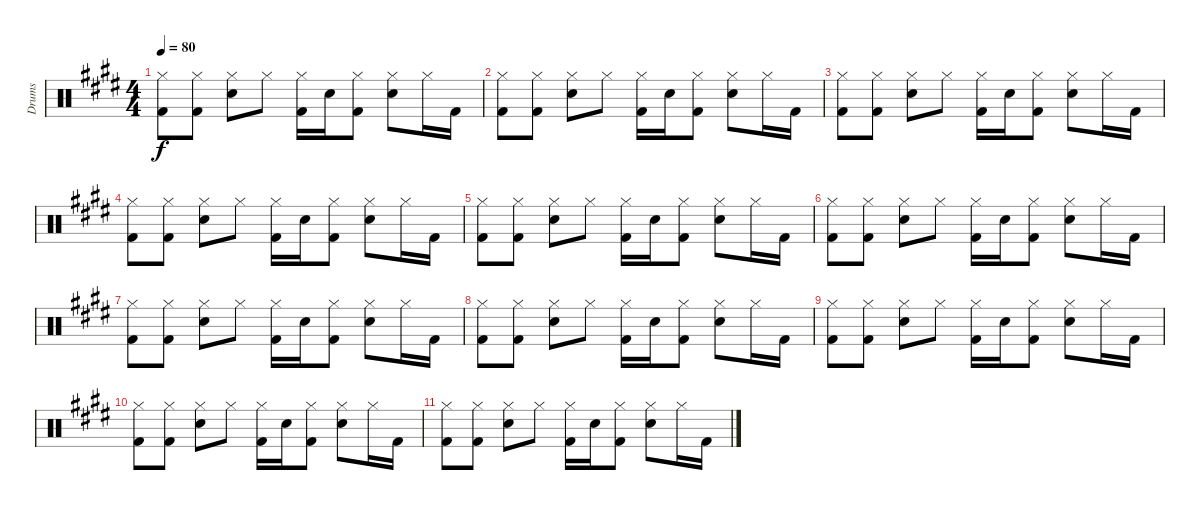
\track ("Drums" "Drums") {instrument percussion}
\staff {score}
\articulation defaults
\ts (4 4)
\tempo 80
\clef neutral
\ks c#minor
("Kick (hit) 2" "Hi-Hat (closed)").8{dy f} ("Kick (hit) 2" "Hi-Hat (closed)").8 ("Snare (hit) 2" "Hi-Hat (closed)").8 "Hi-Hat (closed)".8 ("Kick (hit) 2" "Hi-Hat (closed)").16 "Snare (hit) 2".16 ("Kick (hit) 2" "Hi-Hat (closed)").8 ("Snare (hit) 2" "Hi-Hat (closed)").8 "Hi-Hat (closed)".16 "Kick (hit) 2".16 |
("Kick (hit) 2" "Hi-Hat (closed)").8 ("Kick (hit) 2" "Hi-Hat (closed)").8 ("Snare (hit) 2" "Hi-Hat (closed)").8 "Hi-Hat (closed)".8 ("Kick (hit) 2" "Hi-Hat (closed)").16 "Snare (hit) 2".16 ("Kick (hit) 2" "Hi-Hat (closed)").8 ("Snare (hit) 2" "Hi-Hat (closed)").8 "Hi-Hat (closed)".16 "Kick (hit) 2".16 |
("Kick (hit) 2" "Hi-Hat (closed)").8 ("Kick (hit) 2" "Hi-Hat (closed)").8 ("Snare (hit) 2" "Hi-Hat (closed)").8 "Hi-Hat (closed)".8 ("Kick (hit) 2" "Hi-Hat (closed)").16 "Snare (hit) 2".16 ("Kick (hit) 2" "Hi-Hat (closed)").8 ("Snare (hit) 2" "Hi-Hat (closed)").8 "Hi-Hat (closed)".16 "Kick (hit) 2".16 |
("Kick (hit) 2" "Hi-Hat (closed)").8 ("Kick (hit) 2" "Hi-Hat (closed)").8 ("Snare (hit) 2" "Hi-Hat (closed)").8 "Hi-Hat (closed)".8 ("Kick (hit) 2" "Hi-Hat (closed)").16 "Snare (hit) 2".16 ("Kick (hit) 2" "Hi-Hat (closed)").8 ("Snare (hit) 2" "Hi-Hat (closed)").8 "Hi-Hat (closed)".16 "Kick (hit) 2".16 |
("Kick (hit) 2" "Hi-Hat (closed)").8 ("Kick (hit) 2" "Hi-Hat (closed)").8 ("Snare (hit) 2" "Hi-Hat (closed)").8 "Hi-Hat (closed)".8 ("Kick (hit) 2" "Hi-Hat (closed)").16 "Snare (hit) 2".16 ("Kick (hit) 2" "Hi-Hat (closed)").8 ("Snare (hit) 2" "Hi-Hat (closed)").8 "Hi-Hat (closed)".16 "Kick (hit) 2".16 |
("Kick (hit) 2" "Hi-Hat (closed)").8 ("Kick (hit) 2" "Hi-Hat (closed)").8 ("Snare (hit) 2" "Hi-Hat (closed)").8 "Hi-Hat (closed)".8 ("Kick (hit) 2" "Hi-Hat (closed)").16 "Snare (hit) 2".16 ("Kick (hit) 2" "Hi-Hat (closed)").8 ("Snare (hit) 2" "Hi-Hat (closed)").8 "Hi-Hat (closed)".16 "Kick (hit) 2".16 |
("Kick (hit) 2" "Hi-Hat (closed)").8 ("Kick (hit) 2" "Hi-Hat (closed)").8 ("Snare (hit) 2" "Hi-Hat (closed)").8 "Hi-Hat (closed)".8 ("Kick (hit) 2" "Hi-Hat (closed)").16 "Snare (hit) 2".16 ("Kick (hit) 2" "Hi-Hat (closed)").8 ("Snare (hit) 2" "Hi-Hat (closed)").8 "Hi-Hat (closed)".16 "Kick (hit) 2".16 |
("Kick (hit) 2" "Hi-Hat (closed)").8 ("Kick (hit) 2" "Hi-Hat (closed)").8 ("Snare (hit) 2" "Hi-Hat (closed)").8 "Hi-Hat (closed)".8 ("Kick (hit) 2" "Hi-Hat (closed)").16 "Snare (hit) 2".16 ("Kick (hit) 2" "Hi-Hat (closed)").8 ("Snare (hit) 2" "Hi-Hat (closed)").8 "Hi-Hat (closed)".16 "Kick (hit) 2".16 |
("Kick (hit) 2" "Hi-Hat (closed)").8 ("Kick (hit) 2" "Hi-Hat (closed)").8 ("Snare (hit) 2" "Hi-Hat (closed)").8 "Hi-Hat (closed)".8 ("Kick (hit) 2" "Hi-Hat (closed)").16 "Snare (hit) 2".16 ("Kick (hit) 2" "Hi-Hat (closed)").8 ("Snare (hit) 2" "Hi-Hat (closed)").8 "Hi-Hat (closed)".16 "Kick (hit) 2".16 |
("Kick (hit) 2" "Hi-Hat (closed)").8 ("Kick (hit) 2" "Hi-Hat (closed)").8 ("Snare (hit) 2" "Hi-Hat (closed)").8 "Hi-Hat (closed)".8 ("Kick (hit) 2" "Hi-Hat (closed)").16 "Snare (hit) 2".16 ("Kick (hit) 2" "Hi-Hat (closed)").8 ("Snare (hit) 2" "Hi-Hat (closed)").8 "Hi-Hat (closed)".16 "Kick (hit) 2".16 |
("Kick (hit) 2" "Hi-Hat (closed)").8 ("Kick (hit) 2" "Hi-Hat (closed)").8 ("Snare (hit) 2" "Hi-Hat (closed)").8 "Hi-Hat (closed)".8 ("Kick (hit) 2" "Hi-Hat (closed)").16 "Snare (hit) 2".16 ("Kick (hit) 2" "Hi-Hat (closed)").8 ("Snare (hit) 2" "Hi-Hat (closed)").8 "Hi-Hat (closed)".16 "Kick (hit) 2".16
